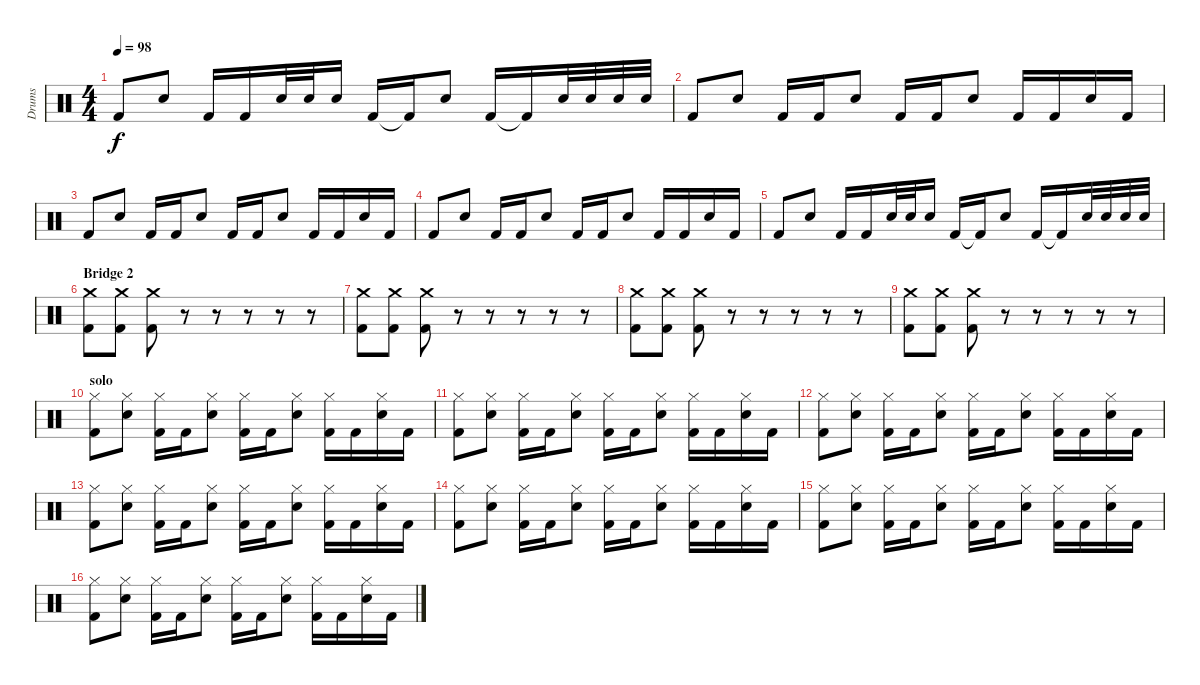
\track ("Drums" "Drums") {instrument percussion}
\staff {score}
\articulation defaults
\ts (4 4)
\tempo 98
\clef neutral
\ks c "Kick (hit) 2".8{dy f} "Electric Snare (hit)".8 "Kick (hit) 2".16 "Kick (hit) 2".16 "Electric Snare (hit)".32 "Electric Snare (hit)".32 "Electric Snare (hit)".16 "Kick (hit) 2".16 "Kick (hit) 2"{t}.16 "Electric Snare (hit)".8 "Kick (hit) 2".16 "Kick (hit) 2"{t}.16 "Electric Snare (hit)".32 "Electric Snare (hit)".32 "Electric Snare (hit)".32 "Electric Snare (hit)".32
|
"Kick (hit) 2".8 "Electric Snare (hit)".8 "Kick (hit) 2".16 "Kick (hit) 2".16 "Electric Snare (hit)".8 "Kick (hit) 2".16 "Kick (hit) 2".16 "Electric Snare (hit)".8 "Kick (hit) 2".16 "Kick (hit) 2".16 "Electric Snare (hit)".16 "Kick (hit) 2".16 |
"Kick (hit) 2".8 "Electric Snare (hit)".8 "Kick (hit) 2".16 "Kick (hit) 2".16 "Electric Snare (hit)".8 "Kick (hit) 2".16 "Kick (hit) 2".16 "Electric Snare (hit)".8 "Kick (hit) 2".16 "Kick (hit) 2".16 "Electric Snare (hit)".16 "Kick (hit) 2".16 |
"Kick (hit) 2".8 "Electric Snare (hit)".8 "Kick (hit) 2".16 "Kick (hit) 2".16 "Electric Snare (hit)".8 "Kick (hit) 2".16 "Kick (hit) 2".16 "Electric Snare (hit)".8 "Kick (hit) 2".16 "Kick (hit) 2".16 "Electric Snare (hit)".16 "Kick (hit) 2".16 |
"Kick (hit) 2".8 "Electric Snare (hit)".8 "Kick (hit) 2".16 "Kick (hit) 2".16 "Electric Snare (hit)".32 "Electric Snare (hit)".32 "Electric Snare (hit)".16 "Kick (hit) 2".16 "Kick (hit) 2"{t}.16 "Electric Snare (hit)".8 "Kick (hit) 2".16 "Kick (hit) 2"{t}.16 "Electric Snare (hit)".32 "Electric Snare (hit)".32 "Electric Snare (hit)".32 "Electric Snare (hit)".32 |
\section ("" "Bridge 2")
("Crash medium (hit)" "Kick (hit) 2").8 ("Crash medium (hit)" "Kick (hit) 2").8 ("Crash medium (hit)" "Kick (hit) 2").8 r.8 r.8 r.8 r.8 r.8 |
("Crash medium (hit)" "Kick (hit) 2").8 ("Crash medium (hit)" "Kick (hit) 2").8 ("Crash medium (hit)" "Kick (hit) 2").8 r.8 r.8 r.8 r.8 r.8 |
("Crash medium (hit)" "Kick (hit) 2").8 ("Crash medium (hit)" "Kick (hit) 2").8 ("Crash medium (hit)" "Kick (hit) 2").8 r.8 r.8 r.8 r.8 r.8 |
("Crash medium (hit)" "Kick (hit) 2").8 ("Crash medium (hit)" "Kick (hit) 2").8 ("Crash medium (hit)" "Kick (hit) 2").8 r.8 r.8 r.8 r.8 r.8 |
\section ("" "solo")
("Hi-Hat (closed)" "Kick (hit) 2").8 ("Hi-Hat (closed)" "Electric Snare (hit)").8 ("Hi-Hat (closed)" "Kick (hit) 2").16 "Kick (hit) 2".16 ("Hi-Hat (closed)" "Electric Snare (hit)").8 ("Hi-Hat (closed)" "Kick (hit) 2").16 "Kick (hit) 2".16 ("Hi-Hat (closed)" "Electric Snare (hit)").8 ("Hi-Hat (closed)" "Kick (hit) 2").16 "Kick (hit) 2".16 ("Hi-Hat (closed)" "Electric Snare (hit)").16 "Kick (hit) 2".16 |
("Hi-Hat (closed)" "Kick (hit) 2").8 ("Hi-Hat (closed)" "Electric Snare (hit)").8 ("Hi-Hat (closed)" "Kick (hit) 2").16 "Kick (hit) 2".16 ("Hi-Hat (closed)" "Electric Snare (hit)").8 ("Hi-Hat (closed)" "Kick (hit) 2").16 "Kick (hit) 2".16 ("Hi-Hat (closed)" "Electric Snare (hit)").8 ("Hi-Hat (closed)" "Kick (hit) 2").16 "Kick (hit) 2".16 ("Hi-Hat (closed)" "Electric Snare (hit)").16 "Kick (hit) 2".16 |
("Hi-Hat (closed)" "Kick (hit) 2").8 ("Hi-Hat (closed)" "Electric Snare (hit)").8 ("Hi-Hat (closed)" "Kick (hit) 2").16 "Kick (hit) 2".16 ("Hi-Hat (closed)" "Electric Snare (hit)").8 ("Hi-Hat (closed)" "Kick (hit) 2").16 "Kick (hit) 2".16 ("Hi-Hat (closed)" "Electric Snare (hit)").8 ("Hi-Hat (closed)" "Kick (hit) 2").16 "Kick (hit) 2".16 ("Hi-Hat (closed)" "Electric Snare (hit)").16 "Kick (hit) 2".16 |
("Hi-Hat (closed)" "Kick (hit) 2").8 ("Hi-Hat (closed)" "Electric Snare (hit)").8 ("Hi-Hat (closed)" "Kick (hit) 2").16 "Kick (hit) 2".16 ("Hi-Hat (closed)" "Electric Snare (hit)").8 ("Hi-Hat (closed)" "Kick (hit) 2").16 "Kick (hit) 2".16 ("Hi-Hat (closed)" "Electric Snare (hit)").8 ("Hi-Hat (closed)" "Kick (hit) 2").16 "Kick (hit) 2".16 ("Hi-Hat (closed)" "Electric Snare (hit)").16 "Kick (hit) 2".16 |
("Hi-Hat (closed)" "Kick (hit) 2").8 ("Hi-Hat (closed)" "Electric Snare (hit)").8 ("Hi-Hat (closed)" "Kick (hit) 2").16 "Kick (hit) 2".16 ("Hi-Hat (closed)" "Electric Snare (hit)").8 ("Hi-Hat (closed)" "Kick (hit) 2").16 "Kick (hit) 2".16 ("Hi-Hat (closed)" "Electric Snare (hit)").8 ("Hi-Hat (closed)" "Kick (hit) 2").16 "Kick (hit) 2".16 ("Hi-Hat (closed)" "Electric Snare (hit)").16 "Kick (hit) 2".16 |
("Hi-Hat (closed)" "Kick (hit) 2").8 ("Hi-Hat (closed)" "Electric Snare (hit)").8 ("Hi-Hat (closed)" "Kick (hit) 2").16 "Kick (hit) 2".16 ("Hi-Hat (closed)" "Electric Snare (hit)").8 ("Hi-Hat (closed)" "Kick (hit) 2").16 "Kick (hit) 2".16 ("Hi-Hat (closed)" "Electric Snare (hit)").8 ("Hi-Hat (closed)" "Kick (hit) 2").16 "Kick (hit) 2".16 ("Hi-Hat (closed)" "Electric Snare (hit)").16 "Kick (hit) 2".16 |
("Hi-Hat (closed)" "Kick (hit) 2").8 ("Hi-Hat (closed)" "Electric Snare (hit)").8 ("Hi-Hat (closed)" "Kick (hit) 2").16 "Kick (hit) 2".16 ("Hi-Hat (closed)" "Electric Snare (hit)").8 ("Hi-Hat (closed)" "Kick (hit) 2").16 "Kick (hit) 2".16 ("Hi-Hat (closed)" "Electric Snare (hit)").8 ("Hi-Hat (closed)" "Kick (hit) 2").16 "Kick (hit) 2".16 ("Hi-Hat (closed)" "Electric Snare (hit)").16 "Kick (hit) 2".16
